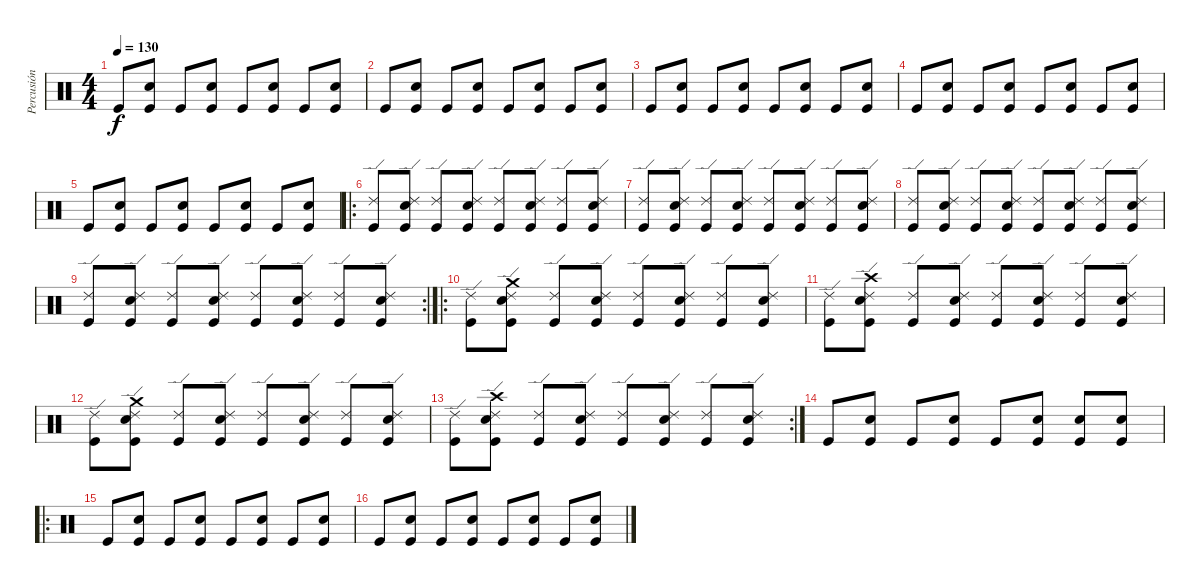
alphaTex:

\track ("Percusión" "Percusión") {instrument percussion}
\staff {score}
\articulation defaults
\ts (4 4)
\tempo 130
\clef neutral
\ks c "Kick (hit)".8{dy f}
("Electric Snare (hit)" "Kick (hit)").8 "Kick (hit)".8 ("Electric Snare (hit)" "Kick (hit)").8 "Kick (hit)".8 ("Electric Snare (hit)" "Kick (hit)").8 "Kick (hit)".8 ("Electric Snare (hit)" "Kick (hit)").8 |
"Kick (hit)".8 ("Electric Snare (hit)" "Kick (hit)").8 "Kick (hit)".8 ("Electric Snare (hit)" "Kick (hit)").8 "Kick (hit)".8 ("Electric Snare (hit)" "Kick (hit)").8 "Kick (hit)".8 ("Electric Snare (hit)" "Kick (hit)").8 |
"Kick (hit)".8 ("Electric Snare (hit)" "Kick (hit)").8 "Kick (hit)".8 ("Electric Snare (hit)" "Kick (hit)").8 "Kick (hit)".8 ("Electric Snare (hit)" "Kick (hit)").8 "Kick (hit)".8 ("Electric Snare (hit)" "Kick (hit)").8 |
"Kick (hit)".8 ("Electric Snare (hit)" "Kick (hit)").8 "Kick (hit)".8 ("Electric Snare (hit)" "Kick (hit)").8 "Kick (hit)".8 ("Electric Snare (hit)" "Kick (hit)").8 "Kick (hit)".8 ("Electric Snare (hit)" "Kick (hit)").8 |
"Kick (hit)".8 ("Electric Snare (hit)" "Kick (hit)").8 "Kick (hit)".8 ("Electric Snare (hit)" "Kick (hit)").8 "Kick (hit)".8 ("Electric Snare (hit)" "Kick (hit)").8 "Kick (hit)".8 ("Electric Snare (hit)" "Kick (hit)").8 |
\ro
("Ride (edge) 2" "Kick (hit)").8 ("Ride (edge) 2" "Electric Snare (hit)" "Kick (hit)").8 ("Ride (edge) 2" "Kick (hit)").8 ("Ride (edge) 2" "Electric Snare (hit)" "Kick (hit)").8 ("Ride (edge) 2" "Kick (hit)").8 ("Ride (edge) 2" "Electric Snare (hit)" "Kick (hit)").8 ("Ride (edge) 2" "Kick (hit)").8 ("Ride (edge) 2" "Electric Snare (hit)" "Kick (hit)").8 |
("Ride (edge) 2" "Kick (hit)").8 ("Ride (edge) 2" "Electric Snare (hit)" "Kick (hit)").8 ("Ride (edge) 2" "Kick (hit)").8 ("Ride (edge) 2" "Electric Snare (hit)" "Kick (hit)").8 ("Ride (edge) 2" "Kick (hit)").8 ("Ride (edge) 2" "Electric Snare (hit)" "Kick (hit)").8 ("Ride (edge) 2" "Kick (hit)").8 ("Ride (edge) 2" "Electric Snare (hit)" "Kick (hit)").8 |
("Ride (edge) 2" "Kick (hit)").8 ("Ride (edge) 2" "Electric Snare (hit)" "Kick (hit)").8 ("Ride (edge) 2" "Kick (hit)").8 ("Ride (edge) 2" "Electric Snare (hit)" "Kick (hit)").8 ("Ride (edge) 2" "Kick (hit)").8 ("Ride (edge) 2" "Electric Snare (hit)" "Kick (hit)").8 ("Ride (edge) 2" "Kick (hit)").8 ("Ride (edge) 2" "Electric Snare (hit)" "Kick (hit)").8 |
\rc 2
("Ride (edge) 2" "Kick (hit)").8 ("Ride (edge) 2" "Electric Snare (hit)" "Kick (hit)").8 ("Ride (edge) 2" "Kick (hit)").8 ("Ride (edge) 2" "Electric Snare (hit)" "Kick (hit)").8 ("Ride (edge) 2" "Kick (hit)").8 ("Ride (edge) 2" "Electric Snare (hit)" "Kick (hit)").8 ("Ride (edge) 2" "Kick (hit)").8 ("Ride (edge) 2" "Electric Snare (hit)" "Kick (hit)").8 |
\ro
("Ride (edge) 2" "Kick (hit)").8 ("Crash medium (hit)" "Ride (edge) 2" "Electric Snare (hit)" "Kick (hit)").8 ("Ride (edge) 2" "Kick (hit)").8 ("Ride (edge) 2" "Electric Snare (hit)" "Kick (hit)").8 ("Ride (edge) 2" "Kick (hit)").8 ("Ride (edge) 2" "Electric Snare (hit)" "Kick (hit)").8 ("Ride (edge) 2" "Kick (hit)").8 ("Ride (edge) 2" "Electric Snare (hit)" "Kick (hit)").8 |
("Ride (edge) 2" "Kick (hit)").8 ("Crash high (hit)" "Ride (edge) 2" "Electric Snare (hit)" "Kick (hit)").8 ("Ride (edge) 2" "Kick (hit)").8 ("Ride (edge) 2" "Electric Snare (hit)" "Kick (hit)").8 ("Ride (edge) 2" "Kick (hit)").8 ("Ride (edge) 2" "Electric Snare (hit)" "Kick (hit)").8 ("Ride (edge) 2" "Kick (hit)").8 ("Ride (edge) 2" "Electric Snare (hit)" "Kick (hit)").8 |
("Ride (edge) 2" "Kick (hit)").8 ("Crash medium (hit)" "Ride (edge) 2" "Electric Snare (hit)" "Kick (hit)").8 ("Ride (edge) 2" "Kick (hit)").8 ("Ride (edge) 2" "Electric Snare (hit)" "Kick (hit)").8 ("Ride (edge) 2" "Kick (hit)").8 ("Ride (edge) 2" "Electric Snare (hit)" "Kick (hit)").8 ("Ride (edge) 2" "Kick (hit)").8 ("Ride (edge) 2" "Electric Snare (hit)" "Kick (hit)").8 |
\rc 2
("Ride (edge) 2" "Kick (hit)").8 ("Crash high (hit)" "Ride (edge) 2" "Electric Snare (hit)" "Kick (hit)").8 ("Ride (edge) 2" "Kick (hit)").8 ("Ride (edge) 2" "Electric Snare (hit)" "Kick (hit)").8 ("Ride (edge) 2" "Kick (hit)").8 ("Ride (edge) 2" "Electric Snare (hit)" "Kick (hit)").8 ("Ride (edge) 2" "Kick (hit)").8 ("Ride (edge) 2" "Electric Snare (hit)" "Kick (hit)").8 |
"Kick (hit)".8 ("Electric Snare (hit)" "Kick (hit)").8 "Kick (hit)".8 ("Electric Snare (hit)" "Kick (hit)").8 "Kick (hit)".8 ("Electric Snare (hit)" "Kick (hit)").8 ("Electric Snare (hit)" "Kick (hit)").8 ("Electric Snare (hit)" "Kick (hit)").8 |
\ro "Kick (hit)".8
("Electric Snare (hit)" "Kick (hit)").8 "Kick (hit)".8 ("Electric Snare (hit)" "Kick (hit)").8 "Kick (hit)".8 ("Electric Snare (hit)" "Kick (hit)").8 "Kick (hit)".8 ("Electric Snare (hit)" "Kick (hit)").8 |
"Kick (hit)".8 ("Electric Snare (hit)" "Kick (hit)").8 "Kick (hit)".8 ("Electric Snare (hit)" "Kick (hit)").8 "Kick (hit)".8 ("Electric Snare (hit)" "Kick (hit)").8 "Kick (hit)".8 ("Electric Snare (hit)" "Kick (hit)").8
